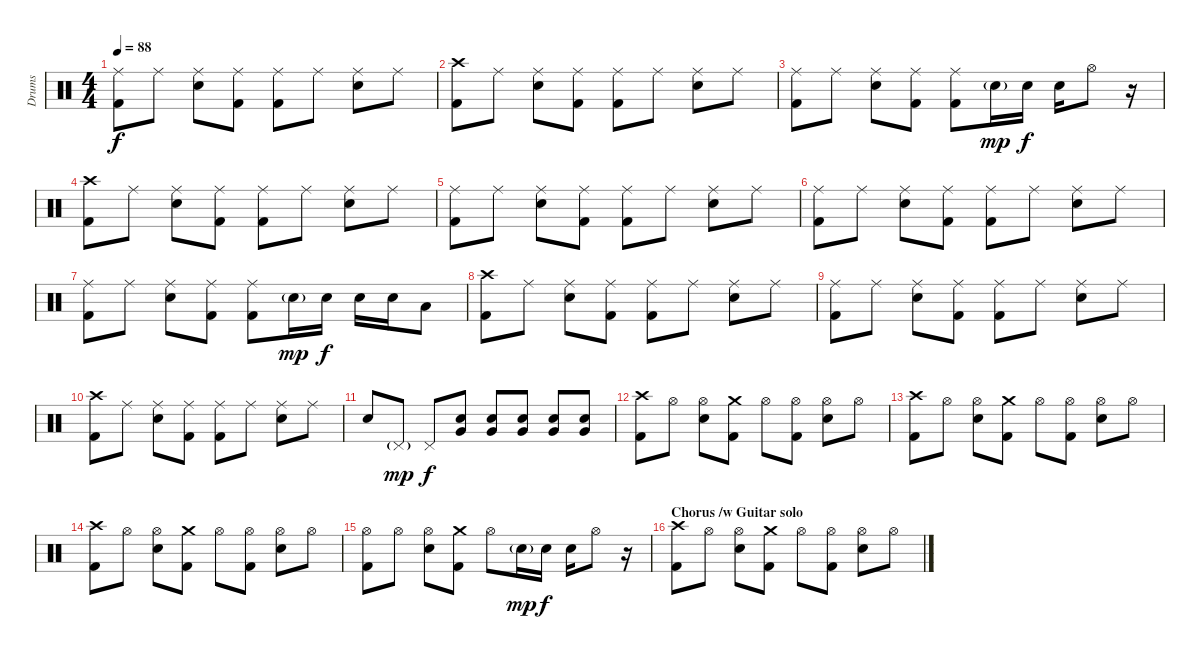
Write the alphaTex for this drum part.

\track ("Drums" "Drums") {instrument percussion}
\staff {score}
\articulation defaults
\ts (4 4)
\tempo 88
\clef neutral
\ks c
("Ride (middle)" "Kick (hit) 2").8{dy f} "Ride (middle)".8 ("Ride (middle)" "Electric Snare (hit)").8 ("Ride (middle)" "Kick (hit) 2").8 ("Ride (middle)" "Kick (hit) 2").8 "Ride (middle)".8 ("Ride (middle)" "Electric Snare (hit)").8 "Ride (middle)".8 |
("Crash high (hit)" "Kick (hit) 2").8 "Ride (middle)".8 ("Ride (middle)" "Electric Snare (hit)").8 ("Ride (middle)" "Kick (hit) 2").8 ("Ride (middle)" "Kick (hit) 2").8 "Ride (middle)".8 ("Ride (middle)" "Electric Snare (hit)").8 "Ride (middle)".8 |
("Ride (middle)" "Kick (hit) 2").8 "Ride (middle)".8 ("Ride (middle)" "Electric Snare (hit)").8 ("Ride (middle)" "Kick (hit) 2").8 ("Ride (middle)" "Kick (hit) 2").8 "Electric Snare (hit)"{g}.16{dy mp} "Electric Snare (hit)".16{dy f} "Electric Snare (hit)".16 "Hi-Hat (open)".8 r.16 |
("Crash high (hit)" "Kick (hit) 2").8 "Ride (middle)".8 ("Ride (middle)" "Electric Snare (hit)").8 ("Ride (middle)" "Kick (hit) 2").8 ("Ride (middle)" "Kick (hit) 2").8 "Ride (middle)".8 ("Ride (middle)" "Electric Snare (hit)").8 "Ride (middle)".8 |
("Ride (middle)" "Kick (hit) 2").8 "Ride (middle)".8 ("Ride (middle)" "Electric Snare (hit)").8 ("Ride (middle)" "Kick (hit) 2").8 ("Ride (middle)" "Kick (hit) 2").8 "Ride (middle)".8 ("Ride (middle)" "Electric Snare (hit)").8 "Ride (middle)".8 |
("Ride (middle)" "Kick (hit) 2").8 "Ride (middle)".8 ("Ride (middle)" "Electric Snare (hit)").8 ("Ride (middle)" "Kick (hit) 2").8 ("Ride (middle)" "Kick (hit) 2").8 "Ride (middle)".8 ("Ride (middle)" "Electric Snare (hit)").8 "Ride (middle)".8 |
("Ride (middle)" "Kick (hit) 2").8 "Ride (middle)".8 ("Ride (middle)" "Electric Snare (hit)").8 ("Ride (middle)" "Kick (hit) 2").8 ("Ride (middle)" "Kick (hit) 2").8 "Electric Snare (hit)"{g}.16{dy mp} "Electric Snare (hit)".16{dy f} "Electric Snare (hit)".16 "Electric Snare (hit)".16 "Low Tom (hit)".8 |
("Crash high (hit)" "Kick (hit) 2").8 "Ride (middle)".8 ("Ride (middle)" "Electric Snare (hit)").8 ("Ride (middle)" "Kick (hit) 2").8 ("Ride (middle)" "Kick (hit) 2").8 "Ride (middle)".8 ("Ride (middle)" "Electric Snare (hit)").8 "Ride (middle)".8 |
("Ride (middle)" "Kick (hit) 2").8 "Ride (middle)".8 ("Ride (middle)" "Electric Snare (hit)").8 ("Ride (middle)" "Kick (hit) 2").8 ("Ride (middle)" "Kick (hit) 2").8 "Ride (middle)".8 ("Ride (middle)" "Electric Snare (hit)").8 "Ride (middle)".8 |
("Crash high (hit)" "Kick (hit) 2").8 "Ride (middle)".8 ("Ride (middle)" "Electric Snare (hit)").8 ("Ride (middle)" "Kick (hit) 2").8 ("Ride (middle)" "Kick (hit) 2").8 "Ride (middle)".8 ("Ride (middle)" "Electric Snare (hit)").8 "Ride (middle)".8 |
"Electric Snare (hit)".8 "Pedal Hi-Hat (hit)"{g}.8{dy mp} "Pedal Hi-Hat (hit)".8{dy f volume 7} ("Very Low Tom (hit)" "Electric Snare (hit)").8{volume 14} ("Very Low Tom (hit)" "Electric Snare (hit)").8 ("Very Low Tom (hit)" "Electric Snare (hit)").8 ("Very Low Tom (hit)" "Electric Snare (hit)").8 ("Very Low Tom (hit)" "Electric Snare (hit)").8 |
\section ("" "")
("Crash high (hit)" "Kick (hit) 2").8{volume 14} "Hi-Hat (open)".8 ("Hi-Hat (open)" "Electric Snare (hit)").8 ("Crash medium (hit)" "Kick (hit) 2").8 "Hi-Hat (open)".8 ("Hi-Hat (open)" "Kick (hit) 2").8 ("Hi-Hat (open)" "Electric Snare (hit)").8 "Hi-Hat (open)".8 |
("Crash high (hit)" "Kick (hit) 2").8 "Hi-Hat (open)".8 ("Hi-Hat (open)" "Electric Snare (hit)").8 ("Crash medium (hit)" "Kick (hit) 2").8 "Hi-Hat (open)".8 ("Hi-Hat (open)" "Kick (hit) 2").8 ("Hi-Hat (open)" "Electric Snare (hit)").8 "Hi-Hat (open)".8 |
("Crash high (hit)" "Kick (hit) 2").8 "Hi-Hat (open)".8 ("Hi-Hat (open)" "Electric Snare (hit)").8 ("Crash medium (hit)" "Kick (hit) 2").8 "Hi-Hat (open)".8 ("Hi-Hat (open)" "Kick (hit) 2").8 ("Hi-Hat (open)" "Electric Snare (hit)").8 "Hi-Hat (open)".8 |
("Hi-Hat (open)" "Kick (hit) 2").8 "Hi-Hat (open)".8 ("Hi-Hat (open)" "Electric Snare (hit)").8 ("Crash medium (hit)" "Kick (hit) 2").8 "Hi-Hat (open)".8 "Electric Snare (hit)"{g}.16{dy mp} "Electric Snare (hit)".16{dy f} "Electric Snare (hit)".16 "Hi-Hat (open)".8 r.16 |
\section ("" "Chorus /w Guitar solo")
("Crash high (hit)" "Kick (hit) 2").8 "Hi-Hat (open)".8 ("Hi-Hat (open)" "Electric Snare (hit)").8 ("Crash medium (hit)" "Kick (hit) 2").8 "Hi-Hat (open)".8 ("Hi-Hat (open)" "Kick (hit) 2").8 ("Hi-Hat (open)" "Electric Snare (hit)").8 "Hi-Hat (open)".8
